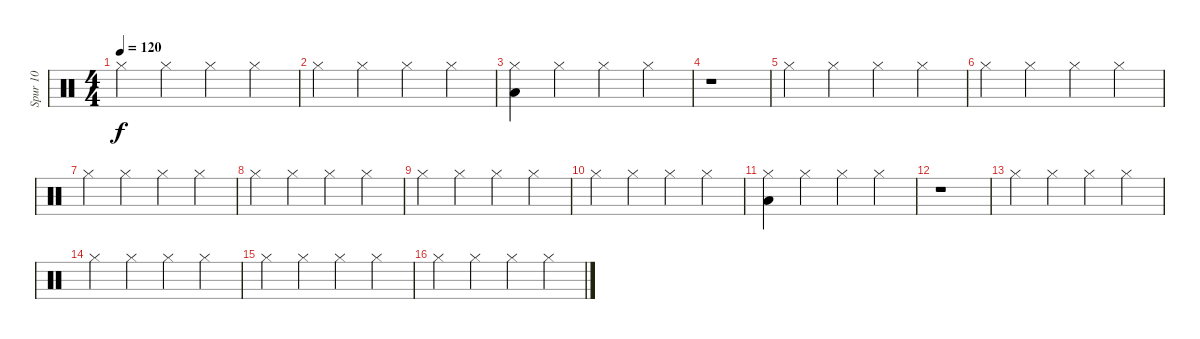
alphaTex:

\track ("Spur 10" "Spur 10") {instrument percussion}
\staff {score}
\articulation defaults
\ts (4 4)
\tempo 120
\clef neutral
\ks c "Hi-Hat (closed)".4{dy f} "Hi-Hat (closed)".4 "Hi-Hat (closed)".4 "Hi-Hat (closed)".4
|
"Hi-Hat (closed)".4 "Hi-Hat (closed)".4 "Hi-Hat (closed)".4 "Hi-Hat (closed)".4 |
("Hi-Hat (closed)" "Low Floor Tom (hit)").4 "Hi-Hat (closed)".4 "Hi-Hat (closed)".4 "Hi-Hat (closed)".4 |
r.1 |
"Hi-Hat (closed)".4 "Hi-Hat (closed)".4 "Hi-Hat (closed)".4 "Hi-Hat (closed)".4 |
"Hi-Hat (closed)".4 "Hi-Hat (closed)".4 "Hi-Hat (closed)".4 "Hi-Hat (closed)".4 |
"Hi-Hat (closed)".4 "Hi-Hat (closed)".4 "Hi-Hat (closed)".4 "Hi-Hat (closed)".4 |
"Hi-Hat (closed)".4 "Hi-Hat (closed)".4 "Hi-Hat (closed)".4 "Hi-Hat (closed)".4 |
"Hi-Hat (closed)".4 "Hi-Hat (closed)".4 "Hi-Hat (closed)".4 "Hi-Hat (closed)".4 |
"Hi-Hat (closed)".4 "Hi-Hat (closed)".4 "Hi-Hat (closed)".4 "Hi-Hat (closed)".4 |
("Hi-Hat (closed)" "Low Floor Tom (hit)").4 "Hi-Hat (closed)".4 "Hi-Hat (closed)".4 "Hi-Hat (closed)".4 |
r.1 |
"Hi-Hat (closed)".4 "Hi-Hat (closed)".4 "Hi-Hat (closed)".4 "Hi-Hat (closed)".4 |
"Hi-Hat (closed)".4 "Hi-Hat (closed)".4 "Hi-Hat (closed)".4 "Hi-Hat (closed)".4 |
"Hi-Hat (closed)".4 "Hi-Hat (closed)".4 "Hi-Hat (closed)".4 "Hi-Hat (closed)".4 |
"Hi-Hat (closed)".4 "Hi-Hat (closed)".4 "Hi-Hat (closed)".4 "Hi-Hat (closed)".4
